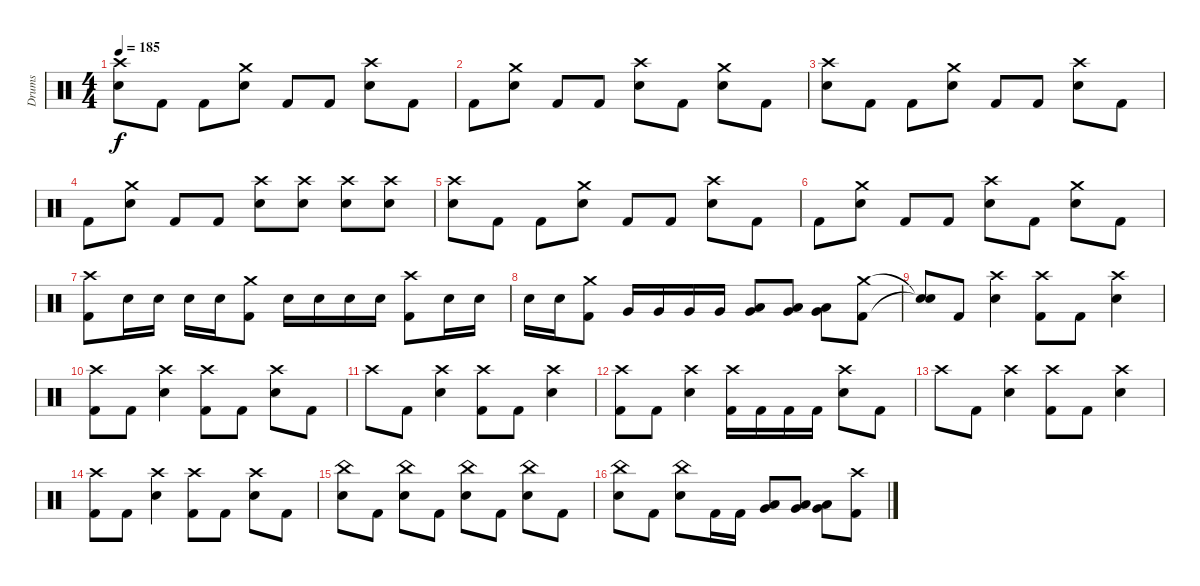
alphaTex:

\track ("Drums" "Drums") {instrument percussion}
\staff {score}
\articulation defaults
\ts (4 4)
\tempo 185
\clef neutral
\ks c
("Crash high (hit)" "Electric Snare (hit)").8{dy f} "Kick (hit) 2".8 "Kick (hit) 2".8 ("Crash medium (hit)" "Electric Snare (hit)").8 "Kick (hit) 2".8 "Kick (hit) 2".8 ("Crash high (hit)" "Electric Snare (hit)").8 "Kick (hit) 2".8 |
"Kick (hit) 2".8 ("Crash medium (hit)" "Electric Snare (hit)").8 "Kick (hit) 2".8 "Kick (hit) 2".8 ("Crash high (hit)" "Electric Snare (hit)").8 "Kick (hit) 2".8 ("Crash medium (hit)" "Electric Snare (hit)").8 "Kick (hit) 2".8 |
("Crash high (hit)" "Electric Snare (hit)").8 "Kick (hit) 2".8 "Kick (hit) 2".8 ("Crash medium (hit)" "Electric Snare (hit)").8 "Kick (hit) 2".8 "Kick (hit) 2".8 ("Crash high (hit)" "Electric Snare (hit)").8 "Kick (hit) 2".8 |
"Kick (hit) 2".8 ("Crash medium (hit)" "Electric Snare (hit)").8 "Kick (hit) 2".8 "Kick (hit) 2".8 ("Crash high (hit)" "Electric Snare (hit)").8 ("Crash high (hit)" "Electric Snare (hit)").8 ("Crash high (hit)" "Electric Snare (hit)").8 ("Crash high (hit)" "Electric Snare (hit)").8 |
("Crash high (hit)" "Electric Snare (hit)").8 "Kick (hit) 2".8 "Kick (hit) 2".8 ("Crash medium (hit)" "Electric Snare (hit)").8 "Kick (hit) 2".8 "Kick (hit) 2".8 ("Crash high (hit)" "Electric Snare (hit)").8 "Kick (hit) 2".8 |
"Kick (hit) 2".8 ("Crash medium (hit)" "Electric Snare (hit)").8 "Kick (hit) 2".8 "Kick (hit) 2".8 ("Crash high (hit)" "Electric Snare (hit)").8 "Kick (hit) 2".8 ("Crash medium (hit)" "Electric Snare (hit)").8 "Kick (hit) 2".8 |
("Crash high (hit)" "Kick (hit) 2").8 "Electric Snare (hit)".16 "Electric Snare (hit)".16 "Electric Snare (hit)".16 "Electric Snare (hit)".16 ("Crash medium (hit)" "Kick (hit) 2").8 "Electric Snare (hit)".16 "Electric Snare (hit)".16 "Electric Snare (hit)".16 "Electric Snare (hit)".16 ("Crash high (hit)" "Kick (hit) 2").8 "Electric Snare (hit)".16 "Electric Snare (hit)".16 |
"Electric Snare (hit)".16 "Electric Snare (hit)".16 ("Crash medium (hit)" "Kick (hit) 2").8 "Very Low Tom (hit)".16 "Very Low Tom (hit)".16 "Very Low Tom (hit)".16 "Very Low Tom (hit)".16 ("Low Floor Tom (hit)" "Very Low Tom (hit)").8 ("Low Floor Tom (hit)" "Very Low Tom (hit)").8 ("Low Floor Tom (hit)" "Very Low Tom (hit)").8 ("Crash medium (hit)" "Kick (hit) 2").8 |
("Snare (hit)"{t} "Snare (hit)"{t}).8 "Kick (hit) 2".8 ("Crash high (hit)" "Electric Snare (hit)").4 ("Crash high (hit)" "Kick (hit) 2").8 "Kick (hit) 2".8 ("Crash high (hit)" "Electric Snare (hit)").4 |
("Crash high (hit)" "Kick (hit) 2").8 "Kick (hit) 2".8 ("Crash high (hit)" "Electric Snare (hit)").4 ("Crash high (hit)" "Kick (hit) 2").8 "Kick (hit) 2".8 ("Crash high (hit)" "Electric Snare (hit)").8 "Kick (hit) 2".8 |
"Crash high (hit)".8 "Kick (hit) 2".8 ("Crash high (hit)" "Electric Snare (hit)").4 ("Crash high (hit)" "Kick (hit) 2").8 "Kick (hit) 2".8 ("Crash high (hit)" "Electric Snare (hit)").4 |
("Crash high (hit)" "Kick (hit) 2").8 "Kick (hit) 2".8 ("Crash high (hit)" "Electric Snare (hit)").4 ("Crash high (hit)" "Kick (hit) 2").16 "Kick (hit) 2".16 "Kick (hit) 2".16 "Kick (hit) 2".16 ("Crash high (hit)" "Electric Snare (hit)").8 "Kick (hit) 2".8 |
"Crash high (hit)".8 "Kick (hit) 2".8 ("Crash high (hit)" "Electric Snare (hit)").4 ("Crash high (hit)" "Kick (hit) 2").8 "Kick (hit) 2".8 ("Crash high (hit)" "Electric Snare (hit)").4 |
("Crash high (hit)" "Kick (hit) 2").8 "Kick (hit) 2".8 ("Crash high (hit)" "Electric Snare (hit)").4 ("Crash high (hit)" "Kick (hit) 2").8 "Kick (hit) 2".8 ("Crash high (hit)" "Electric Snare (hit)").8 "Kick (hit) 2".8 |
("China (hit)" "Electric Snare (hit)").8 "Kick (hit) 2".8 ("China (hit)" "Electric Snare (hit)").8 "Kick (hit) 2".8 ("China (hit)" "Electric Snare (hit)").8 "Kick (hit) 2".8 ("China (hit)" "Electric Snare (hit)").8 "Kick (hit) 2".8 |
("China (hit)" "Electric Snare (hit)").8 "Kick (hit) 2".8 ("China (hit)" "Electric Snare (hit)").8 "Kick (hit) 2".16 "Kick (hit) 2".16 ("Low Tom (hit)" "Very Low Tom (hit)").8 ("Low Tom (hit)" "Very Low Tom (hit)").8 ("Low Floor Tom (hit)" "Very Low Tom (hit)").8 ("Crash high (hit)" "Kick (hit) 2").8
